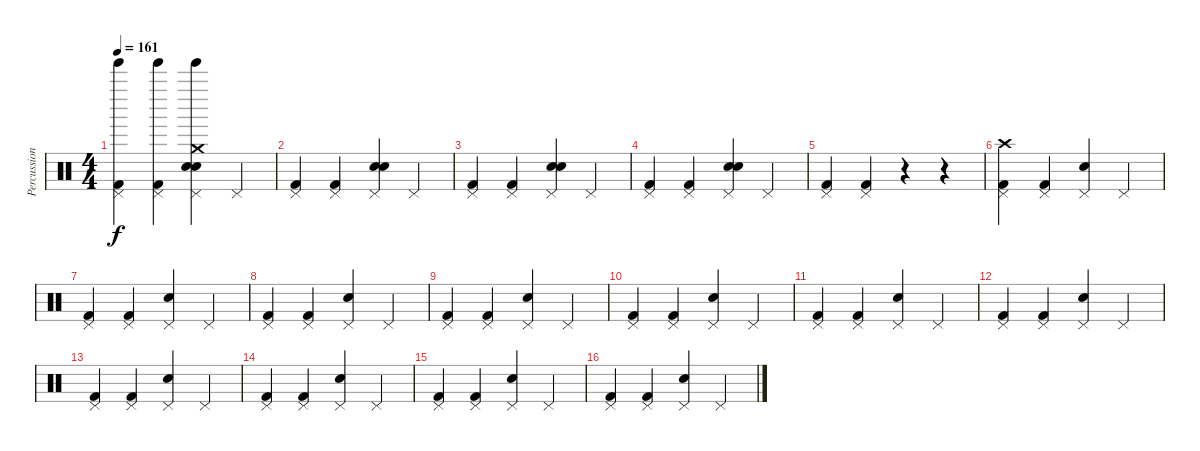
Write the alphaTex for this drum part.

\track ("Percussion" "Percussion") {instrument percussion}
\staff {score}
\articulation defaults
\ts (4 4)
\tempo 161
\clef neutral
\ks c
("Tinkle Bell (hit)" "Pedal Hi-Hat (hit)" "Kick (hit) 2").4{dy f} ("Tinkle Bell (hit)" "Pedal Hi-Hat (hit)" "Kick (hit) 2").4 ("Tinkle Bell (hit)" "Pedal Hi-Hat (hit)" "Crash medium (hit)" "Electric Snare (hit)" "Hand Clap (hit)").4 "Pedal Hi-Hat (hit)".4 |
("Pedal Hi-Hat (hit)" "Kick (hit) 2").4 ("Pedal Hi-Hat (hit)" "Kick (hit) 2").4 ("Pedal Hi-Hat (hit)" "Electric Snare (hit)" "Hand Clap (hit)").4 "Pedal Hi-Hat (hit)".4 |
("Pedal Hi-Hat (hit)" "Kick (hit) 2").4 ("Pedal Hi-Hat (hit)" "Kick (hit) 2").4 ("Pedal Hi-Hat (hit)" "Electric Snare (hit)" "Hand Clap (hit)").4 "Pedal Hi-Hat (hit)".4 |
("Pedal Hi-Hat (hit)" "Kick (hit) 2").4 ("Pedal Hi-Hat (hit)" "Kick (hit) 2").4 ("Pedal Hi-Hat (hit)" "Electric Snare (hit)" "Hand Clap (hit)").4 "Pedal Hi-Hat (hit)".4 |
("Pedal Hi-Hat (hit)" "Kick (hit) 2").4 ("Pedal Hi-Hat (hit)" "Kick (hit) 2").4 r.4 r.4 |
("Crash high (hit)" "Pedal Hi-Hat (hit)" "Kick (hit) 2").4 ("Pedal Hi-Hat (hit)" "Kick (hit) 2").4 ("Pedal Hi-Hat (hit)" "Electric Snare (hit)").4 "Pedal Hi-Hat (hit)".4 |
("Pedal Hi-Hat (hit)" "Kick (hit) 2").4 ("Pedal Hi-Hat (hit)" "Kick (hit) 2").4 ("Pedal Hi-Hat (hit)" "Electric Snare (hit)").4 "Pedal Hi-Hat (hit)".4 |
("Pedal Hi-Hat (hit)" "Kick (hit) 2").4 ("Pedal Hi-Hat (hit)" "Kick (hit) 2").4 ("Pedal Hi-Hat (hit)" "Electric Snare (hit)").4 "Pedal Hi-Hat (hit)".4 |
("Pedal Hi-Hat (hit)" "Kick (hit) 2").4 ("Pedal Hi-Hat (hit)" "Kick (hit) 2").4 ("Pedal Hi-Hat (hit)" "Electric Snare (hit)").4 "Pedal Hi-Hat (hit)".4 |
("Pedal Hi-Hat (hit)" "Kick (hit) 2").4 ("Pedal Hi-Hat (hit)" "Kick (hit) 2").4 ("Pedal Hi-Hat (hit)" "Electric Snare (hit)").4 "Pedal Hi-Hat (hit)".4 |
("Pedal Hi-Hat (hit)" "Kick (hit) 2").4 ("Pedal Hi-Hat (hit)" "Kick (hit) 2").4 ("Pedal Hi-Hat (hit)" "Electric Snare (hit)").4 "Pedal Hi-Hat (hit)".4 |
("Pedal Hi-Hat (hit)" "Kick (hit) 2").4 ("Pedal Hi-Hat (hit)" "Kick (hit) 2").4 ("Pedal Hi-Hat (hit)" "Electric Snare (hit)").4 "Pedal Hi-Hat (hit)".4 |
("Pedal Hi-Hat (hit)" "Kick (hit) 2").4 ("Pedal Hi-Hat (hit)" "Kick (hit) 2").4 ("Pedal Hi-Hat (hit)" "Electric Snare (hit)").4 "Pedal Hi-Hat (hit)".4 |
("Pedal Hi-Hat (hit)" "Kick (hit) 2").4 ("Pedal Hi-Hat (hit)" "Kick (hit) 2").4 ("Pedal Hi-Hat (hit)" "Electric Snare (hit)").4 "Pedal Hi-Hat (hit)".4 |
("Pedal Hi-Hat (hit)" "Kick (hit) 2").4 ("Pedal Hi-Hat (hit)" "Kick (hit) 2").4 ("Pedal Hi-Hat (hit)" "Electric Snare (hit)").4 "Pedal Hi-Hat (hit)".4 |
("Pedal Hi-Hat (hit)" "Kick (hit) 2").4 ("Pedal Hi-Hat (hit)" "Kick (hit) 2").4 ("Pedal Hi-Hat (hit)" "Electric Snare (hit)").4 "Pedal Hi-Hat (hit)".4
